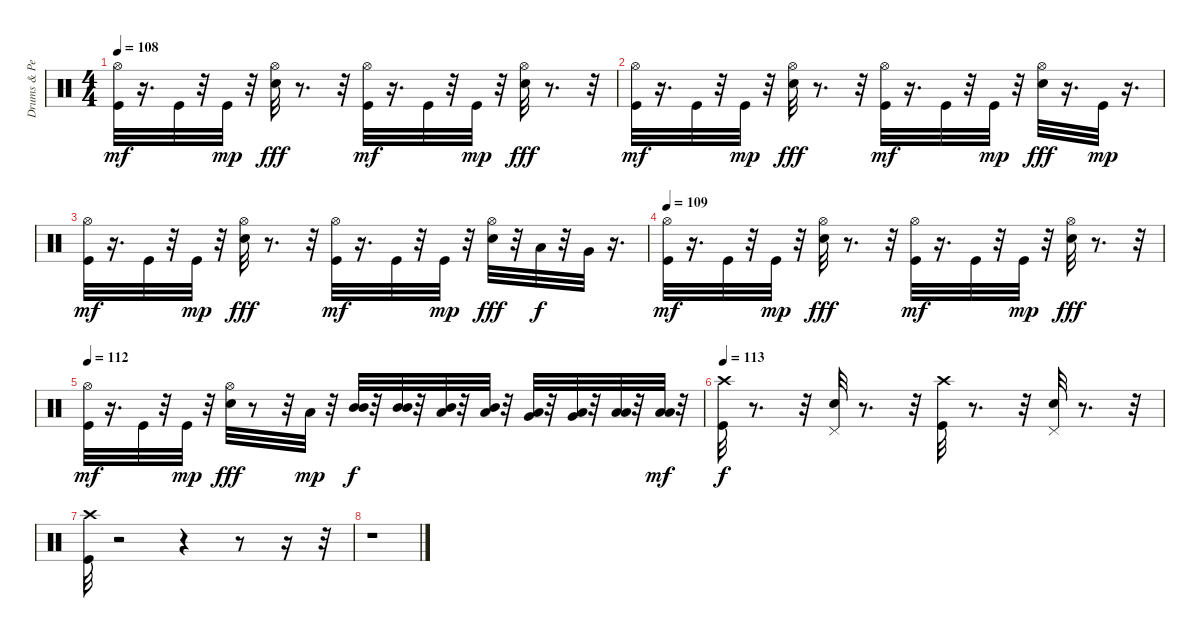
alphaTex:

\track ("Drums & Percussion" "Drums & Pe") {instrument percussion}
\staff {score}
\articulation defaults
\ts (4 4)
\tempo 108
\clef neutral
\ks c
("Hi-Hat (open)" "Kick (hit)").32{dy mf} r.16{d} "Kick (hit)".32 r.32 "Kick (hit)".32{dy mp} r.32 ("Hi-Hat (open)" "Snare (hit) 2").32{dy fff} r.8{d} r.32 ("Hi-Hat (open)" "Kick (hit)").32{dy mf} r.16{d} "Kick (hit)".32 r.32 "Kick (hit)".32{dy mp} r.32 ("Hi-Hat (open)" "Snare (hit) 2").32{dy fff} r.8{d} r.32 |
("Hi-Hat (open)" "Kick (hit)").32{dy mf} r.16{d} "Kick (hit)".32 r.32 "Kick (hit)".32{dy mp} r.32 ("Hi-Hat (open)" "Snare (hit) 2").32{dy fff} r.8{d} r.32 ("Hi-Hat (open)" "Kick (hit)").32{dy mf} r.16{d} "Kick (hit)".32 r.32 "Kick (hit)".32{dy mp} r.32 ("Hi-Hat (open)" "Snare (hit) 2").32{dy fff} r.16{d} "Kick (hit)".32{dy mp} r.16{d} |
("Hi-Hat (open)" "Kick (hit)").32{dy mf} r.16{d} "Kick (hit)".32 r.32 "Kick (hit)".32{dy mp} r.32 ("Hi-Hat (open)" "Snare (hit) 2").32{dy fff} r.8{d} r.32 ("Hi-Hat (open)" "Kick (hit)").32{dy mf} r.16{d} "Kick (hit)".32 r.32 "Kick (hit)".32{dy mp} r.32 ("Hi-Hat (open)" "Snare (hit) 2").32{dy fff} r.32 "Low Tom (hit)".32{dy f} r.32 "Very Low Tom (hit)".32 r.16{d} |
\tempo 109
("Hi-Hat (open)" "Kick (hit)").32{dy mf} r.16{d} "Kick (hit)".32 r.32 "Kick (hit)".32{dy mp} r.32 ("Hi-Hat (open)" "Snare (hit) 2").32{dy fff} r.8{d} r.32 ("Hi-Hat (open)" "Kick (hit)").32{dy mf} r.16{d} "Kick (hit)".32 r.32 "Kick (hit)".32{dy mp} r.32 ("Hi-Hat (open)" "Snare (hit) 2").32{dy fff} r.8{d} r.32 |
\tempo 112
("Hi-Hat (open)" "Kick (hit)").32{dy mf} r.16{d} "Kick (hit)".32 r.32 "Kick (hit)".32{dy mp} r.32 ("Hi-Hat (open)" "Snare (hit) 2").32{dy fff} r.8 r.32 "Low Tom (hit)".32{dy mp} r.32 ("Mid Tom (hit)" "Mid Tom (hit)").32{dy f} r.32 ("Mid Tom (hit)" "Mid Tom (hit)").32 r.32 ("Low Tom (hit)" "Mid Tom (hit)").32 r.32 ("Low Tom (hit)" "Mid Tom (hit)").32 r.32 ("Very Low Tom (hit)" "Low Tom (hit)").32 r.32 ("Very Low Tom (hit)" "Low Tom (hit)").32 r.32 ("Low Floor Tom (hit)" "Low Tom (hit)").32 r.32 ("Low Floor Tom (hit)" "Low Tom (hit)").32{dy mf} r.32 |
\tempo 113
("Kick (hit)" "Crash high (hit)").32{dy f} r.8{d} r.32 ("Pedal Hi-Hat (hit)" "Snare (hit) 2").32 r.8{d} r.32 ("Kick (hit)" "Crash high (hit)").32 r.8{d} r.32 ("Pedal Hi-Hat (hit)" "Snare (hit) 2").32 r.8{d} r.32 |
("Crash high (hit)" "Kick (hit)").32 r.2 r.4 r.8 r.16 r.32 |
r.1
